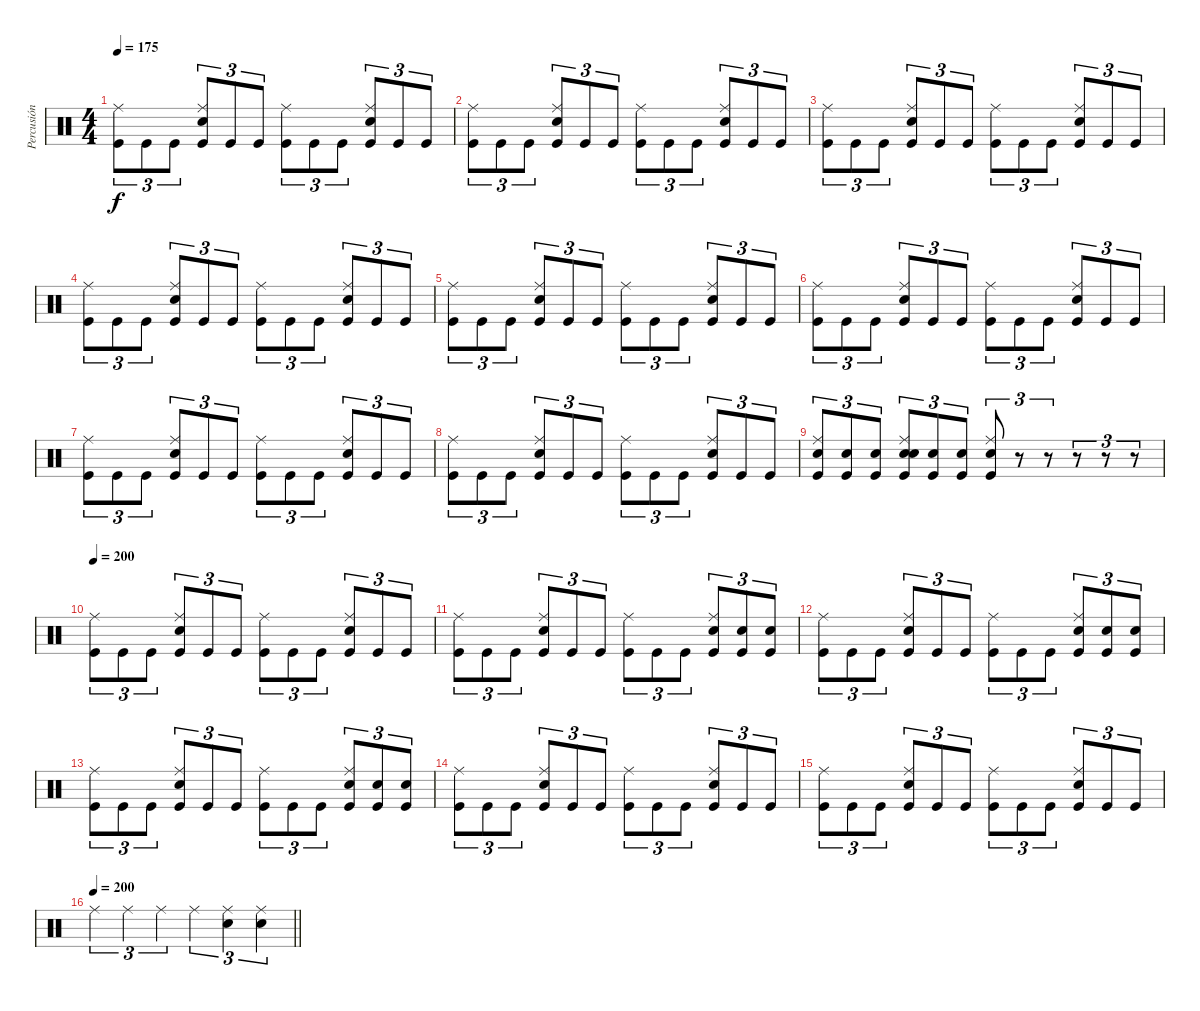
\track ("Percusión" "Percusión") {instrument percussion}
\staff {score}
\articulation defaults
\ts (4 4)
\tempo 175
\clef neutral
\ks c
("Kick (hit)" "Ride (middle)").8{tu (3 2) dy f} "Kick (hit)".8{tu (3 2)} "Kick (hit)".8{tu (3 2)} ("Kick (hit)" "Electric Snare (hit)" "Ride (middle)").8{tu (3 2)} "Kick (hit)".8{tu (3 2)} "Kick (hit)".8{tu (3 2)} ("Kick (hit)" "Ride (middle)").8{tu (3 2)} "Kick (hit)".8{tu (3 2)} "Kick (hit)".8{tu (3 2)} ("Kick (hit)" "Electric Snare (hit)" "Ride (middle)").8{tu (3 2)} "Kick (hit)".8{tu (3 2)} "Kick (hit)".8{tu (3 2)} |
("Kick (hit)" "Ride (middle)").8{tu (3 2)} "Kick (hit)".8{tu (3 2)} "Kick (hit)".8{tu (3 2)} ("Kick (hit)" "Electric Snare (hit)" "Ride (middle)").8{tu (3 2)} "Kick (hit)".8{tu (3 2)} "Kick (hit)".8{tu (3 2)} ("Kick (hit)" "Ride (middle)").8{tu (3 2)} "Kick (hit)".8{tu (3 2)} "Kick (hit)".8{tu (3 2)} ("Kick (hit)" "Electric Snare (hit)" "Ride (middle)").8{tu (3 2)} "Kick (hit)".8{tu (3 2)} "Kick (hit)".8{tu (3 2)} |
("Kick (hit)" "Ride (middle)").8{tu (3 2)} "Kick (hit)".8{tu (3 2)} "Kick (hit)".8{tu (3 2)} ("Kick (hit)" "Electric Snare (hit)" "Ride (middle)").8{tu (3 2)} "Kick (hit)".8{tu (3 2)} "Kick (hit)".8{tu (3 2)} ("Kick (hit)" "Ride (middle)").8{tu (3 2)} "Kick (hit)".8{tu (3 2)} "Kick (hit)".8{tu (3 2)} ("Kick (hit)" "Electric Snare (hit)" "Ride (middle)").8{tu (3 2)} "Kick (hit)".8{tu (3 2)} "Kick (hit)".8{tu (3 2)} |
("Kick (hit)" "Ride (middle)").8{tu (3 2)} "Kick (hit)".8{tu (3 2)} "Kick (hit)".8{tu (3 2)} ("Kick (hit)" "Electric Snare (hit)" "Ride (middle)").8{tu (3 2)} "Kick (hit)".8{tu (3 2)} "Kick (hit)".8{tu (3 2)} ("Kick (hit)" "Ride (middle)").8{tu (3 2)} "Kick (hit)".8{tu (3 2)} "Kick (hit)".8{tu (3 2)} ("Kick (hit)" "Electric Snare (hit)" "Ride (middle)").8{tu (3 2)} "Kick (hit)".8{tu (3 2)} "Kick (hit)".8{tu (3 2)} |
("Kick (hit)" "Ride (middle)").8{tu (3 2)} "Kick (hit)".8{tu (3 2)} "Kick (hit)".8{tu (3 2)} ("Kick (hit)" "Electric Snare (hit)" "Ride (middle)").8{tu (3 2)} "Kick (hit)".8{tu (3 2)} "Kick (hit)".8{tu (3 2)} ("Kick (hit)" "Ride (middle)").8{tu (3 2)} "Kick (hit)".8{tu (3 2)} "Kick (hit)".8{tu (3 2)} ("Kick (hit)" "Electric Snare (hit)" "Ride (middle)").8{tu (3 2)} "Kick (hit)".8{tu (3 2)} "Kick (hit)".8{tu (3 2)} |
("Kick (hit)" "Ride (middle)").8{tu (3 2)} "Kick (hit)".8{tu (3 2)} "Kick (hit)".8{tu (3 2)} ("Kick (hit)" "Electric Snare (hit)" "Ride (middle)").8{tu (3 2)} "Kick (hit)".8{tu (3 2)} "Kick (hit)".8{tu (3 2)} ("Kick (hit)" "Ride (middle)").8{tu (3 2)} "Kick (hit)".8{tu (3 2)} "Kick (hit)".8{tu (3 2)} ("Kick (hit)" "Electric Snare (hit)" "Ride (middle)").8{tu (3 2)} "Kick (hit)".8{tu (3 2)} "Kick (hit)".8{tu (3 2)} |
("Kick (hit)" "Ride (middle)").8{tu (3 2)} "Kick (hit)".8{tu (3 2)} "Kick (hit)".8{tu (3 2)} ("Kick (hit)" "Electric Snare (hit)" "Ride (middle)").8{tu (3 2)} "Kick (hit)".8{tu (3 2)} "Kick (hit)".8{tu (3 2)} ("Kick (hit)" "Ride (middle)").8{tu (3 2)} "Kick (hit)".8{tu (3 2)} "Kick (hit)".8{tu (3 2)} ("Kick (hit)" "Electric Snare (hit)" "Ride (middle)").8{tu (3 2)} "Kick (hit)".8{tu (3 2)} "Kick (hit)".8{tu (3 2)} |
("Kick (hit)" "Ride (middle)").8{tu (3 2)} "Kick (hit)".8{tu (3 2)} "Kick (hit)".8{tu (3 2)} ("Kick (hit)" "Electric Snare (hit)" "Ride (middle)").8{tu (3 2)} "Kick (hit)".8{tu (3 2)} "Kick (hit)".8{tu (3 2)} ("Kick (hit)" "Ride (middle)").8{tu (3 2)} "Kick (hit)".8{tu (3 2)} "Kick (hit)".8{tu (3 2)} ("Kick (hit)" "Electric Snare (hit)" "Ride (middle)").8{tu (3 2)} "Kick (hit)".8{tu (3 2)} "Kick (hit)".8{tu (3 2)} |
("Kick (hit)" "Electric Snare (hit)" "Ride (middle)").8{tu (3 2)} ("Kick (hit)" "Electric Snare (hit)").8{tu (3 2)} ("Kick (hit)" "Electric Snare (hit)").8{tu (3 2)} ("Kick (hit)" "Electric Snare (hit)" "Electric Snare (hit)" "Ride (middle)").8{tu (3 2)} ("Kick (hit)" "Electric Snare (hit)").8{tu (3 2)} ("Kick (hit)" "Electric Snare (hit)").8{tu (3 2)} ("Kick (hit)" "Electric Snare (hit)" "Ride (middle)").8{tu (3 2)} r.8{tu (3 2)} r.8{tu (3 2)} r.8{tu (3 2)} r.8{tu (3 2)} r.8{tu (3 2)} |
\tempo 200
("Kick (hit)" "Ride (middle)").8{tu (3 2)} "Kick (hit)".8{tu (3 2)} "Kick (hit)".8{tu (3 2)} ("Kick (hit)" "Electric Snare (hit)" "Ride (middle)").8{tu (3 2)} "Kick (hit)".8{tu (3 2)} "Kick (hit)".8{tu (3 2)} ("Kick (hit)" "Ride (middle)").8{tu (3 2)} "Kick (hit)".8{tu (3 2)} "Kick (hit)".8{tu (3 2)} ("Kick (hit)" "Electric Snare (hit)" "Ride (middle)").8{tu (3 2)} "Kick (hit)".8{tu (3 2)} "Kick (hit)".8{tu (3 2)} |
("Kick (hit)" "Ride (middle)").8{tu (3 2)} "Kick (hit)".8{tu (3 2)} "Kick (hit)".8{tu (3 2)} ("Kick (hit)" "Electric Snare (hit)" "Ride (middle)").8{tu (3 2)} "Kick (hit)".8{tu (3 2)} "Kick (hit)".8{tu (3 2)} ("Kick (hit)" "Ride (middle)").8{tu (3 2)} "Kick (hit)".8{tu (3 2)} "Kick (hit)".8{tu (3 2)} ("Kick (hit)" "Electric Snare (hit)" "Ride (middle)").8{tu (3 2)} ("Kick (hit)" "Electric Snare (hit)").8{tu (3 2)} ("Kick (hit)" "Electric Snare (hit)").8{tu (3 2)} |
("Kick (hit)" "Ride (middle)").8{tu (3 2)} "Kick (hit)".8{tu (3 2)} "Kick (hit)".8{tu (3 2)} ("Kick (hit)" "Electric Snare (hit)" "Ride (middle)").8{tu (3 2)} "Kick (hit)".8{tu (3 2)} "Kick (hit)".8{tu (3 2)} ("Kick (hit)" "Ride (middle)").8{tu (3 2)} "Kick (hit)".8{tu (3 2)} "Kick (hit)".8{tu (3 2)} ("Kick (hit)" "Electric Snare (hit)" "Ride (middle)").8{tu (3 2)} ("Kick (hit)" "Electric Snare (hit)").8{tu (3 2)} ("Kick (hit)" "Electric Snare (hit)").8{tu (3 2)} |
("Kick (hit)" "Ride (middle)").8{tu (3 2)} "Kick (hit)".8{tu (3 2)} "Kick (hit)".8{tu (3 2)} ("Kick (hit)" "Electric Snare (hit)" "Ride (middle)").8{tu (3 2)} "Kick (hit)".8{tu (3 2)} "Kick (hit)".8{tu (3 2)} ("Kick (hit)" "Ride (middle)").8{tu (3 2)} "Kick (hit)".8{tu (3 2)} "Kick (hit)".8{tu (3 2)} ("Kick (hit)" "Electric Snare (hit)" "Ride (middle)").8{tu (3 2)} ("Kick (hit)" "Electric Snare (hit)").8{tu (3 2)} ("Kick (hit)" "Electric Snare (hit)").8{tu (3 2)} |
("Kick (hit)" "Ride (middle)").8{tu (3 2)} "Kick (hit)".8{tu (3 2)} "Kick (hit)".8{tu (3 2)} ("Kick (hit)" "Electric Snare (hit)" "Ride (middle)").8{tu (3 2)} "Kick (hit)".8{tu (3 2)} "Kick (hit)".8{tu (3 2)} ("Kick (hit)" "Ride (middle)").8{tu (3 2)} "Kick (hit)".8{tu (3 2)} "Kick (hit)".8{tu (3 2)} ("Kick (hit)" "Electric Snare (hit)" "Ride (middle)").8{tu (3 2)} "Kick (hit)".8{tu (3 2)} "Kick (hit)".8{tu (3 2)} |
("Kick (hit)" "Ride (middle)").8{tu (3 2)} "Kick (hit)".8{tu (3 2)} "Kick (hit)".8{tu (3 2)} ("Kick (hit)" "Electric Snare (hit)" "Ride (middle)").8{tu (3 2)} "Kick (hit)".8{tu (3 2)} "Kick (hit)".8{tu (3 2)} ("Kick (hit)" "Ride (middle)").8{tu (3 2)} "Kick (hit)".8{tu (3 2)} "Kick (hit)".8{tu (3 2)} ("Kick (hit)" "Electric Snare (hit)" "Ride (middle)").8{tu (3 2)} "Kick (hit)".8{tu (3 2)} "Kick (hit)".8{tu (3 2)} |
\tempo 200
\barLineRight lightlight "Ride (middle)".4{tu (3 2)} "Ride (middle)".4{tu (3 2)} "Ride (middle)".4{tu (3 2)} "Ride (middle)".4{tu (3 2)}
("Electric Snare (hit)" "Ride (middle)").4{tu (3 2)} ("Electric Snare (hit)" "Ride (middle)").4{tu (3 2)}
